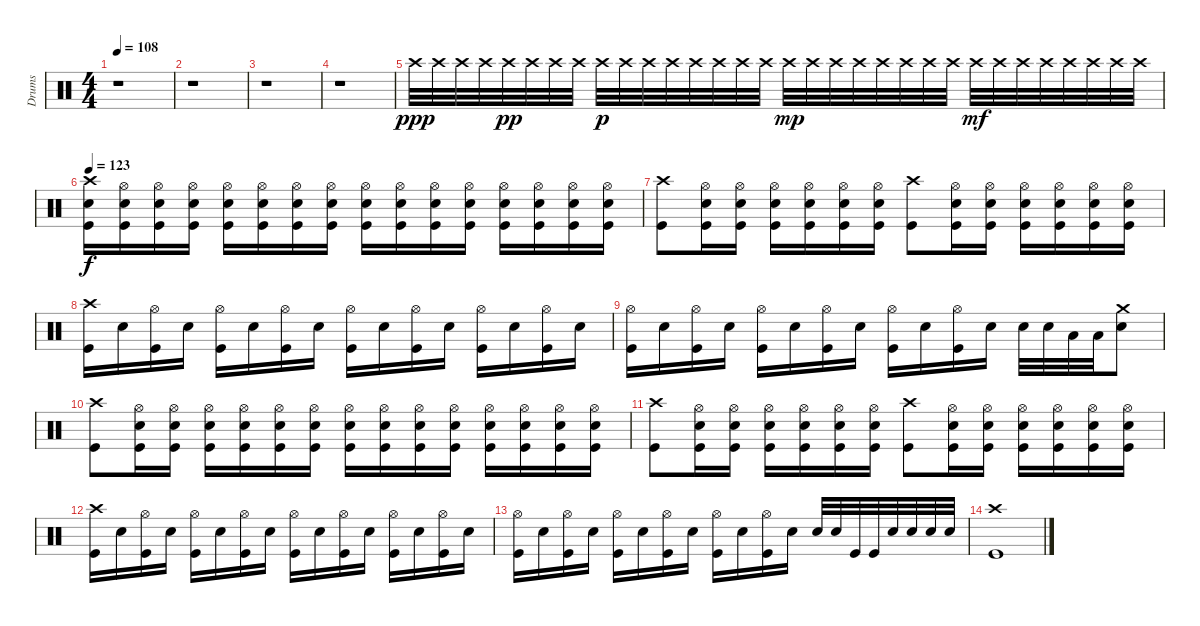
\track ("Drums" "Drums") {instrument percussion}
\staff {score}
\articulation defaults
\ts (4 4)
\tempo 108
\clef neutral
\ks c
r.1{dy f} |
r.1 |
r.1 |
r.1 |
"Crash high (hit)".32{dy ppp} "Crash high (hit)".32 "Crash high (hit)".32 "Crash high (hit)".32 "Crash high (hit)".32{dy pp} "Crash high (hit)".32 "Crash high (hit)".32 "Crash high (hit)".32 "Crash high (hit)".32{dy p} "Crash high (hit)".32 "Crash high (hit)".32 "Crash high (hit)".32 "Crash high (hit)".32 "Crash high (hit)".32 "Crash high (hit)".32 "Crash high (hit)".32 "Crash high (hit)".32{dy mp} "Crash high (hit)".32 "Crash high (hit)".32 "Crash high (hit)".32 "Crash high (hit)".32 "Crash high (hit)".32 "Crash high (hit)".32 "Crash high (hit)".32 "Crash high (hit)".32{dy mf} "Crash high (hit)".32 "Crash high (hit)".32 "Crash high (hit)".32 "Crash high (hit)".32 "Crash high (hit)".32 "Crash high (hit)".32 "Crash high (hit)".32 |
\tempo 123
("Crash high (hit)" "Electric Snare (hit)" "Kick (hit)").16{dy f} ("Hi-Hat (open)" "Electric Snare (hit)" "Kick (hit)").16 ("Hi-Hat (open)" "Electric Snare (hit)" "Kick (hit)").16 ("Hi-Hat (open)" "Electric Snare (hit)" "Kick (hit)").16 ("Hi-Hat (open)" "Electric Snare (hit)" "Kick (hit)").16 ("Hi-Hat (open)" "Electric Snare (hit)" "Kick (hit)").16 ("Hi-Hat (open)" "Electric Snare (hit)" "Kick (hit)").16 ("Hi-Hat (open)" "Electric Snare (hit)" "Kick (hit)").16 ("Hi-Hat (open)" "Electric Snare (hit)" "Kick (hit)").16 ("Hi-Hat (open)" "Electric Snare (hit)" "Kick (hit)").16 ("Hi-Hat (open)" "Electric Snare (hit)" "Kick (hit)").16 ("Hi-Hat (open)" "Electric Snare (hit)" "Kick (hit)").16 ("Hi-Hat (open)" "Electric Snare (hit)" "Kick (hit)").16 ("Hi-Hat (open)" "Electric Snare (hit)" "Kick (hit)").16 ("Hi-Hat (open)" "Electric Snare (hit)" "Kick (hit)").16 ("Hi-Hat (open)" "Electric Snare (hit)" "Kick (hit)").16 |
("Crash high (hit)" "Kick (hit)").8 ("Hi-Hat (open)" "Electric Snare (hit)" "Kick (hit)").16 ("Hi-Hat (open)" "Electric Snare (hit)" "Kick (hit)").16 ("Hi-Hat (open)" "Electric Snare (hit)" "Kick (hit)").16 ("Hi-Hat (open)" "Electric Snare (hit)" "Kick (hit)").16 ("Hi-Hat (open)" "Electric Snare (hit)" "Kick (hit)").16 ("Hi-Hat (open)" "Electric Snare (hit)" "Kick (hit)").16 ("Crash high (hit)" "Kick (hit)").8 ("Hi-Hat (open)" "Electric Snare (hit)" "Kick (hit)").16 ("Hi-Hat (open)" "Electric Snare (hit)" "Kick (hit)").16 ("Hi-Hat (open)" "Electric Snare (hit)" "Kick (hit)").16 ("Hi-Hat (open)" "Electric Snare (hit)" "Kick (hit)").16 ("Hi-Hat (open)" "Electric Snare (hit)" "Kick (hit)").16 ("Hi-Hat (open)" "Electric Snare (hit)" "Kick (hit)").16 |
("Crash high (hit)" "Kick (hit)").16 "Electric Snare (hit)".16 ("Hi-Hat (open)" "Kick (hit)").16 "Electric Snare (hit)".16 ("Hi-Hat (open)" "Kick (hit)").16 "Electric Snare (hit)".16 ("Hi-Hat (open)" "Kick (hit)").16 "Electric Snare (hit)".16 ("Hi-Hat (open)" "Kick (hit)").16 "Electric Snare (hit)".16 ("Hi-Hat (open)" "Kick (hit)").16 "Electric Snare (hit)".16 ("Hi-Hat (open)" "Kick (hit)").16 "Electric Snare (hit)".16 ("Hi-Hat (open)" "Kick (hit)").16 "Electric Snare (hit)".16 |
("Hi-Hat (open)" "Kick (hit)").16 "Electric Snare (hit)".16 ("Hi-Hat (open)" "Kick (hit)").16 "Electric Snare (hit)".16 ("Hi-Hat (open)" "Kick (hit)").16 "Electric Snare (hit)".16 ("Hi-Hat (open)" "Kick (hit)").16 "Electric Snare (hit)".16 ("Hi-Hat (open)" "Kick (hit)").16 "Electric Snare (hit)".16 ("Hi-Hat (open)" "Kick (hit)").16 "Electric Snare (hit)".16 "Electric Snare (hit)".32 "Electric Snare (hit)".32 "Low Tom (hit)".32 "Low Tom (hit)".32 ("Crash medium (hit)" "Electric Snare (hit)").8 |
("Crash high (hit)" "Kick (hit)").8 ("Hi-Hat (open)" "Electric Snare (hit)" "Kick (hit)").16 ("Hi-Hat (open)" "Electric Snare (hit)" "Kick (hit)").16 ("Hi-Hat (open)" "Electric Snare (hit)" "Kick (hit)").16 ("Hi-Hat (open)" "Electric Snare (hit)" "Kick (hit)").16 ("Hi-Hat (open)" "Electric Snare (hit)" "Kick (hit)").16 ("Hi-Hat (open)" "Electric Snare (hit)" "Kick (hit)").16 ("Hi-Hat (open)" "Electric Snare (hit)" "Kick (hit)").16 ("Hi-Hat (open)" "Electric Snare (hit)" "Kick (hit)").16 ("Hi-Hat (open)" "Electric Snare (hit)" "Kick (hit)").16 ("Hi-Hat (open)" "Electric Snare (hit)" "Kick (hit)").16 ("Hi-Hat (open)" "Electric Snare (hit)" "Kick (hit)").16 ("Hi-Hat (open)" "Electric Snare (hit)" "Kick (hit)").16 ("Hi-Hat (open)" "Electric Snare (hit)" "Kick (hit)").16 ("Hi-Hat (open)" "Electric Snare (hit)" "Kick (hit)").16 |
("Crash high (hit)" "Kick (hit)").8 ("Hi-Hat (open)" "Electric Snare (hit)" "Kick (hit)").16 ("Hi-Hat (open)" "Electric Snare (hit)" "Kick (hit)").16 ("Hi-Hat (open)" "Electric Snare (hit)" "Kick (hit)").16 ("Hi-Hat (open)" "Electric Snare (hit)" "Kick (hit)").16 ("Hi-Hat (open)" "Electric Snare (hit)" "Kick (hit)").16 ("Hi-Hat (open)" "Electric Snare (hit)" "Kick (hit)").16 ("Crash high (hit)" "Kick (hit)").8 ("Hi-Hat (open)" "Electric Snare (hit)" "Kick (hit)").16 ("Hi-Hat (open)" "Electric Snare (hit)" "Kick (hit)").16 ("Hi-Hat (open)" "Electric Snare (hit)" "Kick (hit)").16 ("Hi-Hat (open)" "Electric Snare (hit)" "Kick (hit)").16 ("Hi-Hat (open)" "Electric Snare (hit)" "Kick (hit)").16 ("Hi-Hat (open)" "Electric Snare (hit)" "Kick (hit)").16 |
("Crash high (hit)" "Kick (hit)").16 "Electric Snare (hit)".16 ("Hi-Hat (open)" "Kick (hit)").16 "Electric Snare (hit)".16 ("Hi-Hat (open)" "Kick (hit)").16 "Electric Snare (hit)".16 ("Hi-Hat (open)" "Kick (hit)").16 "Electric Snare (hit)".16 ("Hi-Hat (open)" "Kick (hit)").16 "Electric Snare (hit)".16 ("Hi-Hat (open)" "Kick (hit)").16 "Electric Snare (hit)".16 ("Hi-Hat (open)" "Kick (hit)").16 "Electric Snare (hit)".16 ("Hi-Hat (open)" "Kick (hit)").16 "Electric Snare (hit)".16 |
("Hi-Hat (open)" "Kick (hit)").16 "Electric Snare (hit)".16 ("Hi-Hat (open)" "Kick (hit)").16 "Electric Snare (hit)".16 ("Hi-Hat (open)" "Kick (hit)").16 "Electric Snare (hit)".16 ("Hi-Hat (open)" "Kick (hit)").16 "Electric Snare (hit)".16 ("Hi-Hat (open)" "Kick (hit)").16 "Electric Snare (hit)".16 ("Hi-Hat (open)" "Kick (hit)").16 "Electric Snare (hit)".16 "Electric Snare (hit)".32 "Electric Snare (hit)".32 "Kick (hit)".32 "Kick (hit)".32 "Electric Snare (hit)".32 "Electric Snare (hit)".32 "Electric Snare (hit)".32 "Electric Snare (hit)".32 |
("Crash high (hit)" "Kick (hit)").1
